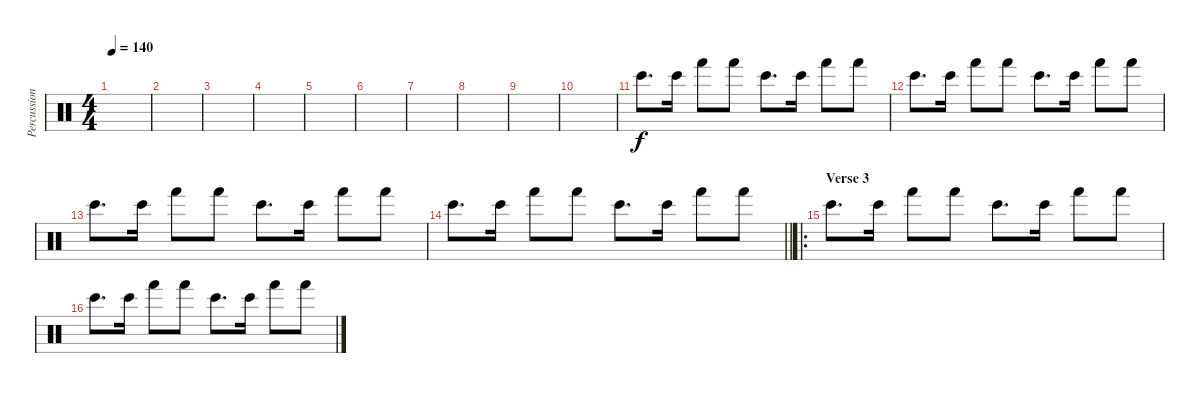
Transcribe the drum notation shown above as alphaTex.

\track ("Percussion" "Percussion") {instrument percussion}
\staff {score}
\articulation defaults
\ts (4 4)
\tempo 140
\clef neutral
\ks c
|
|
|
|
|
|
|
|
|
|
"Bongo High (hit)".8{d} "Bongo High (hit)".16 "Hand (hit)".8 "Hand (hit)".8 "Bongo High (hit)".8{d} "Bongo High (hit)".16 "Hand (hit)".8 "Hand (hit)".8 |
"Bongo High (hit)".8{d} "Bongo High (hit)".16 "Hand (hit)".8 "Hand (hit)".8 "Bongo High (hit)".8{d} "Bongo High (hit)".16 "Hand (hit)".8 "Hand (hit)".8 |
"Bongo High (hit)".8{d} "Bongo High (hit)".16 "Hand (hit)".8 "Hand (hit)".8 "Bongo High (hit)".8{d} "Bongo High (hit)".16 "Hand (hit)".8 "Hand (hit)".8 |
\barLineRight lightlight "Bongo High (hit)".8{d} "Bongo High (hit)".16 "Hand (hit)".8 "Hand (hit)".8 "Bongo High (hit)".8{d} "Bongo High (hit)".16 "Hand (hit)".8 "Hand (hit)".8
|
\ro
\section ("" "Verse 3")
"Bongo High (hit)".8{d} "Bongo High (hit)".16 "Hand (hit)".8 "Hand (hit)".8 "Bongo High (hit)".8{d} "Bongo High (hit)".16 "Hand (hit)".8 "Hand (hit)".8 |
"Bongo High (hit)".8{d} "Bongo High (hit)".16 "Hand (hit)".8 "Hand (hit)".8 "Bongo High (hit)".8{d} "Bongo High (hit)".16 "Hand (hit)".8 "Hand (hit)".8
